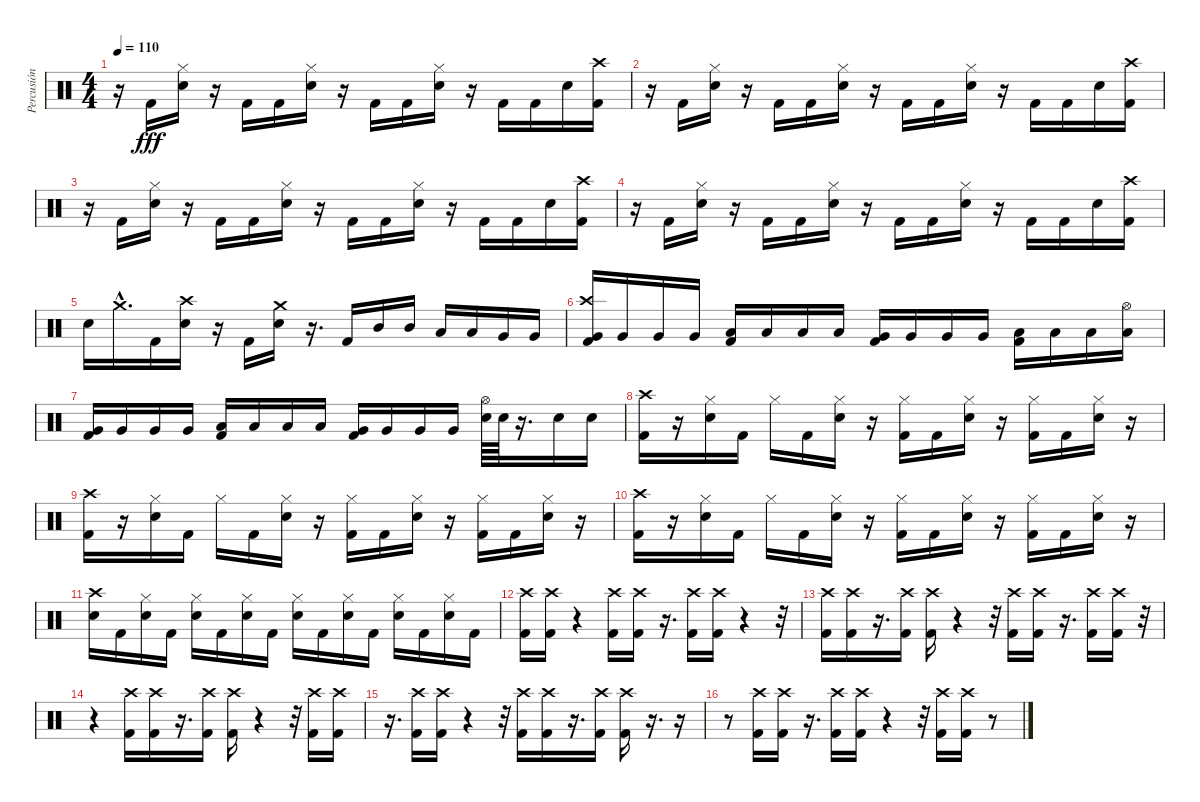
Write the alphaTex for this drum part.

\track ("Percusión" "Percusión") {instrument percussion}
\staff {score}
\articulation defaults
\ts (4 4)
\tempo 110
\clef neutral
\ks c
r.16{dy fff} "Kick (hit) 2".16 ("Electric Snare (hit)" "Hi-Hat (closed)").16 r.16 "Kick (hit) 2".16 "Kick (hit) 2".16 ("Electric Snare (hit)" "Hi-Hat (closed)").16 r.16 "Kick (hit) 2".16 "Kick (hit) 2".16 ("Electric Snare (hit)" "Hi-Hat (closed)").16 r.16 "Kick (hit) 2".16 "Kick (hit) 2".16 "Electric Snare (hit)".16 ("Kick (hit) 2" "Crash high (hit)").16 |
r.16 "Kick (hit) 2".16 ("Electric Snare (hit)" "Hi-Hat (closed)").16 r.16 "Kick (hit) 2".16 "Kick (hit) 2".16 ("Electric Snare (hit)" "Hi-Hat (closed)").16 r.16 "Kick (hit) 2".16 "Kick (hit) 2".16 ("Electric Snare (hit)" "Hi-Hat (closed)").16 r.16 "Kick (hit) 2".16 "Kick (hit) 2".16 "Electric Snare (hit)".16 ("Kick (hit) 2" "Crash high (hit)").16 |
r.16 "Kick (hit) 2".16 ("Electric Snare (hit)" "Hi-Hat (closed)").16 r.16 "Kick (hit) 2".16 "Kick (hit) 2".16 ("Electric Snare (hit)" "Hi-Hat (closed)").16 r.16 "Kick (hit) 2".16 "Kick (hit) 2".16 ("Electric Snare (hit)" "Hi-Hat (closed)").16 r.16 "Kick (hit) 2".16 "Kick (hit) 2".16 "Electric Snare (hit)".16 ("Kick (hit) 2" "Crash high (hit)").16 |
r.16 "Kick (hit) 2".16 ("Electric Snare (hit)" "Hi-Hat (closed)").16 r.16 "Kick (hit) 2".16 "Kick (hit) 2".16 ("Electric Snare (hit)" "Hi-Hat (closed)").16 r.16 "Kick (hit) 2".16 "Kick (hit) 2".16 ("Electric Snare (hit)" "Hi-Hat (closed)").16 r.16 "Kick (hit) 2".16 "Kick (hit) 2".16 "Electric Snare (hit)".16 ("Kick (hit) 2" "Crash high (hit)").16 |
"Electric Snare (hit)".16 "Crash medium (hit)"{hac}.16{d} "Kick (hit) 2".16 ("Electric Snare (hit)" "Crash high (hit)").16 r.16 "Kick (hit) 2".16 ("Electric Snare (hit)" "Crash medium (hit)").16 r.16{d} "Kick (hit) 2".16 "Mid Tom (hit)".16 "Mid Tom (hit)".16 "Low Tom (hit)".16 "Low Tom (hit)".16 "Very Low Tom (hit)".16 "Very Low Tom (hit)".16 |
("Crash high (hit)" "Kick (hit) 2" "Very Low Tom (hit)").16 "Very Low Tom (hit)".16 "Very Low Tom (hit)".16 "Very Low Tom (hit)".16 ("Kick (hit) 2" "Low Tom (hit)").16 "Low Tom (hit)".16 "Low Tom (hit)".16 "Low Tom (hit)".16 ("Kick (hit) 2" "Very Low Tom (hit)").16 "Very Low Tom (hit)".16 "Very Low Tom (hit)".16 "Very Low Tom (hit)".16 ("Kick (hit) 2" "Low Tom (hit)").16 "Low Tom (hit)".16 "Low Tom (hit)".16 ("Hi-Hat (open)" "Low Tom (hit)").16 |
("Kick (hit) 2" "Very Low Tom (hit)").16 "Very Low Tom (hit)".16 "Very Low Tom (hit)".16 "Very Low Tom (hit)".16 ("Kick (hit) 2" "Low Tom (hit)").16 "Low Tom (hit)".16 "Low Tom (hit)".16 "Low Tom (hit)".16 ("Kick (hit) 2" "Very Low Tom (hit)").16 "Very Low Tom (hit)".16 "Very Low Tom (hit)".16 "Very Low Tom (hit)".16 ("Electric Snare (hit)" "Hi-Hat (open)").64 "Electric Snare (hit)".64 r.16{d} "Electric Snare (hit)".16 "Electric Snare (hit)".16 |
("Kick (hit) 2" "Crash high (hit)").16 r.16 ("Electric Snare (hit)" "Hi-Hat (closed)").16 "Kick (hit) 2".16 "Hi-Hat (closed)".16 "Kick (hit) 2".16 ("Electric Snare (hit)" "Hi-Hat (closed)").16 r.16 ("Kick (hit) 2" "Hi-Hat (closed)").16 "Kick (hit) 2".16 ("Electric Snare (hit)" "Hi-Hat (closed)").16 r.16 ("Kick (hit) 2" "Hi-Hat (closed)").16 "Kick (hit) 2".16 ("Electric Snare (hit)" "Hi-Hat (closed)").16 r.16 |
("Kick (hit) 2" "Crash high (hit)").16 r.16 ("Electric Snare (hit)" "Hi-Hat (closed)").16 "Kick (hit) 2".16 "Hi-Hat (closed)".16 "Kick (hit) 2".16 ("Electric Snare (hit)" "Hi-Hat (closed)").16 r.16 ("Kick (hit) 2" "Hi-Hat (closed)").16 "Kick (hit) 2".16 ("Electric Snare (hit)" "Hi-Hat (closed)").16 r.16 ("Kick (hit) 2" "Hi-Hat (closed)").16 "Kick (hit) 2".16 ("Electric Snare (hit)" "Hi-Hat (closed)").16 r.16 |
("Kick (hit) 2" "Crash high (hit)").16 r.16 ("Electric Snare (hit)" "Hi-Hat (closed)").16 "Kick (hit) 2".16 "Hi-Hat (closed)".16 "Kick (hit) 2".16 ("Electric Snare (hit)" "Hi-Hat (closed)").16 r.16 ("Kick (hit) 2" "Hi-Hat (closed)").16 "Kick (hit) 2".16 ("Electric Snare (hit)" "Hi-Hat (closed)").16 r.16 ("Kick (hit) 2" "Hi-Hat (closed)").16 "Kick (hit) 2".16 ("Electric Snare (hit)" "Hi-Hat (closed)").16 r.16 |
("Crash high (hit)" "Electric Snare (hit)").16 "Kick (hit) 2".16 ("Hi-Hat (closed)" "Electric Snare (hit)").16 "Kick (hit) 2".16 ("Hi-Hat (closed)" "Electric Snare (hit)").16 "Kick (hit) 2".16 ("Hi-Hat (closed)" "Electric Snare (hit)").16 "Kick (hit) 2".16 ("Hi-Hat (closed)" "Electric Snare (hit)").16 "Kick (hit) 2".16 ("Hi-Hat (closed)" "Electric Snare (hit)").16 "Kick (hit) 2".16 ("Hi-Hat (closed)" "Electric Snare (hit)").16 "Kick (hit) 2".16 ("Hi-Hat (closed)" "Electric Snare (hit)").16 "Kick (hit) 2".16 |
("Kick (hit) 2" "Crash high (hit)").16 ("Kick (hit) 2" "Crash high (hit)").16 r.4 ("Kick (hit) 2" "Crash high (hit)").16 ("Kick (hit) 2" "Crash high (hit)").16 r.16{d} ("Kick (hit) 2" "Crash high (hit)").16 ("Kick (hit) 2" "Crash high (hit)").16 r.4 r.32 |
("Kick (hit) 2" "Crash high (hit)").16 ("Kick (hit) 2" "Crash high (hit)").16 r.16{d} ("Kick (hit) 2" "Crash high (hit)").16 ("Kick (hit) 2" "Crash high (hit)").16 r.4 r.32 ("Kick (hit) 2" "Crash high (hit)").16 ("Kick (hit) 2" "Crash high (hit)").16 r.16{d} ("Kick (hit) 2" "Crash high (hit)").16 ("Kick (hit) 2" "Crash high (hit)").16 r.32 |
r.4 ("Kick (hit) 2" "Crash high (hit)").16 ("Kick (hit) 2" "Crash high (hit)").16 r.16{d} ("Kick (hit) 2" "Crash high (hit)").16 ("Kick (hit) 2" "Crash high (hit)").16 r.4 r.32 ("Kick (hit) 2" "Crash high (hit)").16 ("Kick (hit) 2" "Crash high (hit)").16 |
r.16{d} ("Kick (hit) 2" "Crash high (hit)").16 ("Kick (hit) 2" "Crash high (hit)").16 r.4 r.32 ("Kick (hit) 2" "Crash high (hit)").16 ("Kick (hit) 2" "Crash high (hit)").16 r.16{d} ("Kick (hit) 2" "Crash high (hit)").16 ("Kick (hit) 2" "Crash high (hit)").16 r.16{d} r.16 |
r.8 ("Kick (hit) 2" "Crash high (hit)").16 ("Kick (hit) 2" "Crash high (hit)").16 r.16{d} ("Kick (hit) 2" "Crash high (hit)").16 ("Kick (hit) 2" "Crash high (hit)").16 r.4 r.32 ("Kick (hit) 2" "Crash high (hit)").16 ("Kick (hit) 2" "Crash high (hit)").16 r.8
